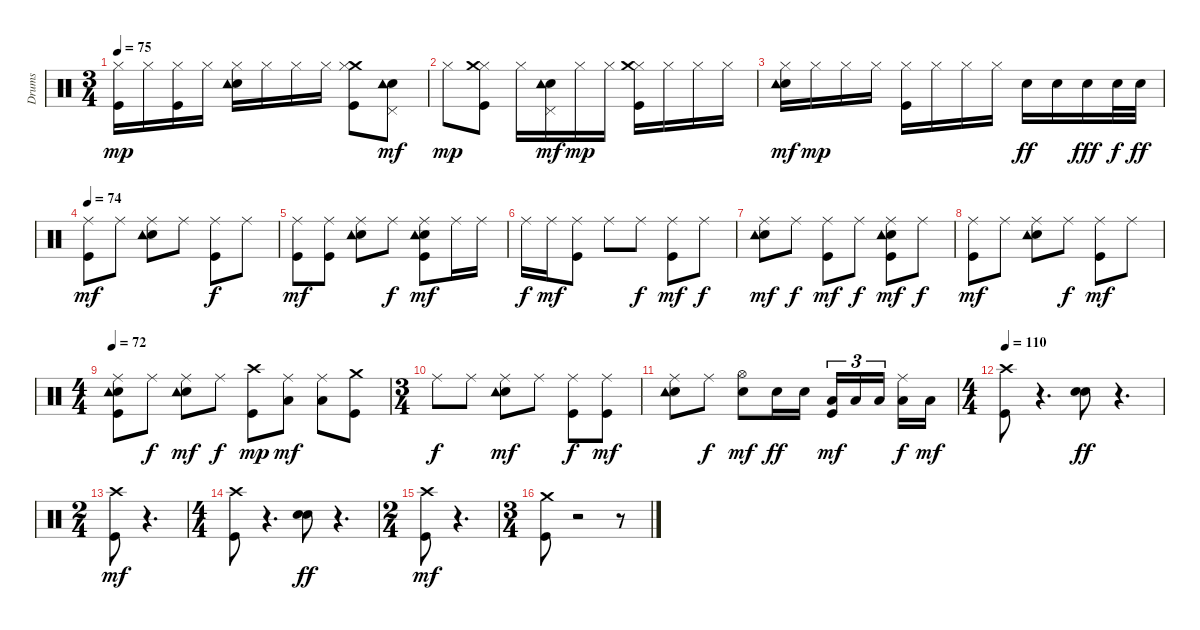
\track ("Drums" "Drums") {instrument percussion}
\staff {score}
\articulation defaults
\ts (3 4)
\tempo 75
\clef neutral
\ks c
("Kick (hit)" "Hi-Hat (closed)").16{dy mp} "Hi-Hat (closed)".16 ("Kick (hit)" "Hi-Hat (closed)").16 "Hi-Hat (closed)".16 ("Electric Snare (hit)" "Tambourine (hit)" "Hi-Hat (closed)").16 "Hi-Hat (closed)".16 "Hi-Hat (closed)".16 "Hi-Hat (closed)".16 ("Kick (hit)" "Crash medium (hit)" "Hi-Hat (closed)").8 ("Electric Snare (hit)" "Pedal Hi-Hat (hit)" "Tambourine (hit)").8{dy mf} |
"Hi-Hat (closed)".8{dy mp} ("Kick (hit)" "Hi-Hat (closed)" "Crash medium (hit)").8 "Hi-Hat (closed)".16 ("Electric Snare (hit)" "Pedal Hi-Hat (hit)" "Tambourine (hit)").16{dy mf} "Hi-Hat (closed)".16{dy mp} "Hi-Hat (closed)".16 ("Kick (hit)" "Hi-Hat (closed)" "Crash medium (hit)").16 "Hi-Hat (closed)".16 "Hi-Hat (closed)".16 "Hi-Hat (closed)".16 |
("Electric Snare (hit)" "Hi-Hat (closed)" "Tambourine (hit)").16{dy mf} "Hi-Hat (closed)".16{dy mp} "Hi-Hat (closed)".16 "Hi-Hat (closed)".16 ("Kick (hit)" "Hi-Hat (closed)").16 "Hi-Hat (closed)".16 "Hi-Hat (closed)".16 "Hi-Hat (closed)".16 "Electric Snare (hit)".16{dy ff} "Electric Snare (hit)".16 "Electric Snare (hit)".16{dy fff} "Electric Snare (hit)".32{dy f} "Electric Snare (hit)".32{dy ff} |
\tempo 74
("Kick (hit)" "Ride (middle)").8{dy mf} "Ride (middle)".8 ("Electric Snare (hit)" "Ride (middle)" "Tambourine (hit)").8 "Ride (middle)".8 ("Kick (hit)" "Ride (middle)").8{dy f} "Ride (middle)".8 |
("Kick (hit)" "Ride (middle)").8{dy mf} ("Kick (hit)" "Ride (middle)").8 ("Electric Snare (hit)" "Ride (middle)" "Tambourine (hit)").8 "Ride (middle)".8{dy f} ("Kick (hit)" "Electric Snare (hit)" "Ride (middle)" "Tambourine (hit)").8{dy mf} "Ride (middle)".16 "Ride (middle)".16 |
"Ride (middle)".16{dy f} "Ride (middle)".16{dy mf} ("Kick (hit)" "Ride (middle)").8 "Ride (middle)".8 "Ride (middle)".8{dy f} ("Kick (hit)" "Ride (middle)").8{dy mf} "Ride (middle)".8{dy f} |
("Electric Snare (hit)" "Ride (middle)" "Tambourine (hit)").8{dy mf} "Ride (middle)".8{dy f} ("Kick (hit)" "Ride (middle)").8{dy mf} "Ride (middle)".8{dy f} ("Kick (hit)" "Electric Snare (hit)" "Ride (middle)" "Tambourine (hit)").8{dy mf} "Ride (middle)".8{dy f} |
("Kick (hit)" "Ride (middle)").8{dy mf} "Ride (middle)".8 ("Electric Snare (hit)" "Ride (middle)" "Tambourine (hit)").8 "Ride (middle)".8{dy f} ("Kick (hit)" "Ride (middle)").8{dy mf} "Ride (middle)".8 |
\ts (4 4)
\tempo 72
("Kick (hit)" "Electric Snare (hit)" "Ride (middle)" "Tambourine (hit)").8 "Ride (middle)".8{dy f} ("Electric Snare (hit)" "Ride (middle)" "Tambourine (hit)").8{dy mf} "Ride (middle)".8{dy f} ("Kick (hit)" "Crash high (hit)").8{dy mp} ("Low Floor Tom (hit)" "Ride (middle)").8{dy mf} ("Low Floor Tom (hit)" "Ride (middle)").8 ("Kick (hit)" "Crash medium (hit)").8 |
\ts (3 4)
"Ride (middle)".8{dy f} "Ride (middle)".8 ("Electric Snare (hit)" "Ride (middle)" "Tambourine (hit)").8{dy mf} "Ride (middle)".8 ("Kick (hit)" "Ride (middle)").8{dy f} ("Kick (hit)" "Ride (middle)").8{dy mf} |
("Electric Snare (hit)" "Ride (middle)" "Tambourine (hit)").8 "Ride (middle)".8{dy f} ("Electric Snare (hit)" "Hi-Hat (open)").8{dy mf} "Electric Snare (hit)".16{dy ff} "Electric Snare (hit)".16 ("Kick (hit)" "Low Tom (hit)").16{tu (3 2) dy mf} "Low Tom (hit)".16{tu (3 2)} "Low Tom (hit)".16{tu (3 2)} ("Low Floor Tom (hit)" "Ride (middle)").16{dy f} "Low Floor Tom (hit)".16{dy mf} |
\ts (4 4)
\tempo 110
("Kick (hit)" "Crash high (hit)").8 r.4{d} ("Snare (hit) 2" "Electric Snare (hit)").8{dy ff} r.4{d} |
\ts (2 4)
("Kick (hit)" "Crash high (hit)").8{dy mf} r.4{d} |
\ts (4 4)
("Kick (hit)" "Crash high (hit)").8 r.4{d} ("Snare (hit) 2" "Electric Snare (hit)").8{dy ff} r.4{d} |
\ts (2 4)
("Kick (hit)" "Crash high (hit)").8{dy mf} r.4{d} |
\ts (3 4)
("Kick (hit)" "Crash medium (hit)").8 r.2 r.8
